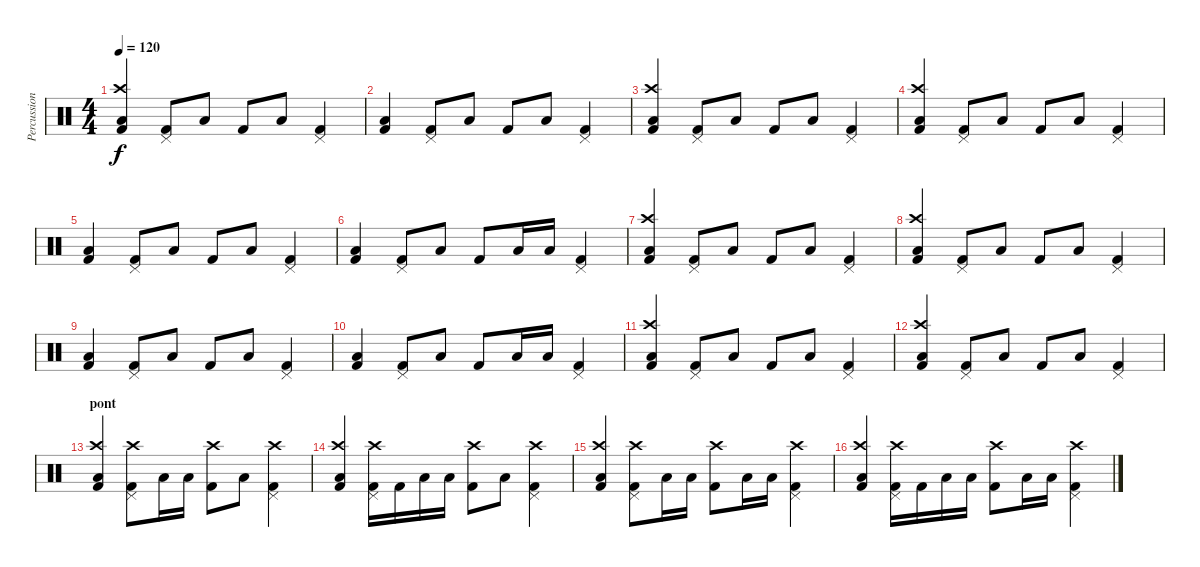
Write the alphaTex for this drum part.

\track ("Percussions" "Percussion") {instrument percussion}
\staff {score}
\articulation defaults
\ts (4 4)
\tempo 120
\clef neutral
\ks c
("Low Floor Tom (hit)" "Crash high (hit)" "Kick (hit) 2").4{dy f} ("Pedal Hi-Hat (hit)" "Kick (hit) 2").8 "Low Floor Tom (hit)".8 "Kick (hit) 2".8 "Low Floor Tom (hit)".8 ("Pedal Hi-Hat (hit)" "Kick (hit) 2").4 |
("Low Floor Tom (hit)" "Kick (hit) 2").4 ("Pedal Hi-Hat (hit)" "Kick (hit) 2").8 "Low Floor Tom (hit)".8 "Kick (hit) 2".8 "Low Floor Tom (hit)".8 ("Pedal Hi-Hat (hit)" "Kick (hit) 2").4 |
("Low Floor Tom (hit)" "Crash high (hit)" "Kick (hit) 2").4 ("Pedal Hi-Hat (hit)" "Kick (hit) 2").8 "Low Floor Tom (hit)".8 "Kick (hit) 2".8 "Low Floor Tom (hit)".8 ("Pedal Hi-Hat (hit)" "Kick (hit) 2").4 |
("Low Floor Tom (hit)" "Crash high (hit)" "Kick (hit) 2").4 ("Pedal Hi-Hat (hit)" "Kick (hit) 2").8 "Low Floor Tom (hit)".8 "Kick (hit) 2".8 "Low Floor Tom (hit)".8 ("Pedal Hi-Hat (hit)" "Kick (hit) 2").4 |
("Low Floor Tom (hit)" "Kick (hit) 2").4 ("Pedal Hi-Hat (hit)" "Kick (hit) 2").8 "Low Floor Tom (hit)".8 "Kick (hit) 2".8 "Low Floor Tom (hit)".8 ("Pedal Hi-Hat (hit)" "Kick (hit) 2").4 |
("Low Floor Tom (hit)" "Kick (hit) 2").4 ("Pedal Hi-Hat (hit)" "Kick (hit) 2").8 "Low Floor Tom (hit)".8 "Kick (hit) 2".8 "Low Floor Tom (hit)".16 "Low Floor Tom (hit)".16 ("Pedal Hi-Hat (hit)" "Kick (hit) 2").4 |
("Low Floor Tom (hit)" "Crash high (hit)" "Kick (hit) 2").4 ("Pedal Hi-Hat (hit)" "Kick (hit) 2").8 "Low Floor Tom (hit)".8 "Kick (hit) 2".8 "Low Floor Tom (hit)".8 ("Pedal Hi-Hat (hit)" "Kick (hit) 2").4 |
("Low Floor Tom (hit)" "Crash high (hit)" "Kick (hit) 2").4 ("Pedal Hi-Hat (hit)" "Kick (hit) 2").8 "Low Floor Tom (hit)".8 "Kick (hit) 2".8 "Low Floor Tom (hit)".8 ("Pedal Hi-Hat (hit)" "Kick (hit) 2").4 |
("Low Floor Tom (hit)" "Kick (hit) 2").4 ("Pedal Hi-Hat (hit)" "Kick (hit) 2").8 "Low Floor Tom (hit)".8 "Kick (hit) 2".8 "Low Floor Tom (hit)".8 ("Pedal Hi-Hat (hit)" "Kick (hit) 2").4 |
("Low Floor Tom (hit)" "Kick (hit) 2").4 ("Pedal Hi-Hat (hit)" "Kick (hit) 2").8 "Low Floor Tom (hit)".8 "Kick (hit) 2".8 "Low Floor Tom (hit)".16 "Low Floor Tom (hit)".16 ("Pedal Hi-Hat (hit)" "Kick (hit) 2").4 |
("Low Floor Tom (hit)" "Crash high (hit)" "Kick (hit) 2").4 ("Pedal Hi-Hat (hit)" "Kick (hit) 2").8 "Low Floor Tom (hit)".8 "Kick (hit) 2".8 "Low Floor Tom (hit)".8 ("Pedal Hi-Hat (hit)" "Kick (hit) 2").4 |
("Low Floor Tom (hit)" "Crash high (hit)" "Kick (hit) 2").4 ("Pedal Hi-Hat (hit)" "Kick (hit) 2").8 "Low Floor Tom (hit)".8 "Kick (hit) 2".8 "Low Floor Tom (hit)".8 ("Pedal Hi-Hat (hit)" "Kick (hit) 2").4 |
\section ("" "pont")
("Low Floor Tom (hit)" "Crash high (hit)" "Kick (hit) 2").4 ("Pedal Hi-Hat (hit)" "Crash high (hit)" "Kick (hit) 2").8 "Low Floor Tom (hit)".16 "Low Floor Tom (hit)".16 ("Crash high (hit)" "Kick (hit) 2").8 "Low Floor Tom (hit)".8 ("Pedal Hi-Hat (hit)" "Crash high (hit)" "Kick (hit) 2").4 |
("Low Floor Tom (hit)" "Crash high (hit)" "Kick (hit) 2").4 ("Pedal Hi-Hat (hit)" "Crash high (hit)" "Kick (hit) 2").16 "Kick (hit) 2".16 "Low Floor Tom (hit)".16 "Low Floor Tom (hit)".16 ("Crash high (hit)" "Kick (hit) 2").8 "Low Floor Tom (hit)".8 ("Pedal Hi-Hat (hit)" "Crash high (hit)" "Kick (hit) 2").4 |
("Low Floor Tom (hit)" "Crash high (hit)" "Kick (hit) 2").4 ("Pedal Hi-Hat (hit)" "Crash high (hit)" "Kick (hit) 2").8 "Low Floor Tom (hit)".16 "Low Floor Tom (hit)".16 ("Crash high (hit)" "Kick (hit) 2").8 "Low Floor Tom (hit)".16 "Low Floor Tom (hit)".16 ("Pedal Hi-Hat (hit)" "Crash high (hit)" "Kick (hit) 2").4 |
("Low Floor Tom (hit)" "Crash high (hit)" "Kick (hit) 2").4 ("Pedal Hi-Hat (hit)" "Crash high (hit)" "Kick (hit) 2").16 "Kick (hit) 2".16 "Low Floor Tom (hit)".16 "Low Floor Tom (hit)".16 ("Crash high (hit)" "Kick (hit) 2").8 "Low Floor Tom (hit)".16 "Low Floor Tom (hit)".16 ("Pedal Hi-Hat (hit)" "Crash high (hit)" "Kick (hit) 2").4
